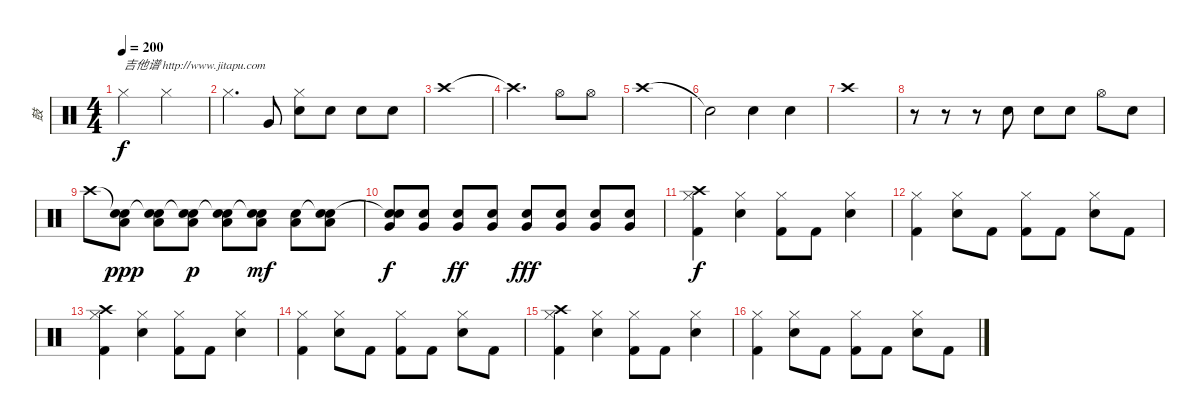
\track ("鼓" "鼓") {instrument percussion}
\staff {score}
\articulation defaults
\ts (4 4)
\tempo 200
\clef neutral
\ks c "Hi-Hat (closed)".2{txt "吉他谱 http://www.jitapu.com" dy f} "Hi-Hat (closed)".2
|
"Hi-Hat (closed)".4{d} "Very Low Tom (hit)".8 ("Hi-Hat (closed)" "Snare (hit) 2").8 "Snare (hit) 2".8 "Snare (hit) 2".8 "Snare (hit) 2".8 |
"Crash high (hit)".1 |
"Crash high (hit)"{t}.2{d} "Hi-Hat (open)".8 "Hi-Hat (open)".8 |
"Crash high (hit)".1 |
"Snare (hit)"{t}.2 "Snare (hit) 2"{nh}.4 "Snare (hit) 2"{nh}.4 |
"Crash high (hit)".1 |
r.8 r.8 r.8 "Snare (hit) 2".8 "Electric Snare (hit)".8 "Electric Snare (hit)".8 "Hi-Hat (open)".8 "Electric Snare (hit)".8 |
"Crash high (hit)".8 ("Snare (hit)"{t} "Snare (hit) 2" "Low Floor Tom (hit)").8{dy ppp} ("Snare (hit)"{t} "Snare (hit) 2" "Low Floor Tom (hit)").8 ("Snare (hit)"{t} "Snare (hit) 2" "Low Floor Tom (hit)").8{dy p} ("Snare (hit)"{t} "Snare (hit) 2" "Low Floor Tom (hit)").8 ("Snare (hit)"{t} "Snare (hit) 2" "Low Floor Tom (hit)").8{dy mf} ("Snare (hit) 2" "Low Floor Tom (hit)").8 ("Snare (hit)"{t} "Snare (hit) 2" "Low Floor Tom (hit)").8 |
("Snare (hit)"{t} "Snare (hit) 2" "Very Low Tom (hit)").8{dy f} ("Snare (hit) 2" "Very Low Tom (hit)").8 ("Snare (hit) 2" "Very Low Tom (hit)").8{dy ff} ("Snare (hit) 2" "Very Low Tom (hit)").8 ("Snare (hit) 2" "Very Low Tom (hit)").8{dy fff} ("Snare (hit) 2" "Very Low Tom (hit)").8 ("Snare (hit) 2" "Very Low Tom (hit)").8 ("Snare (hit) 2" "Very Low Tom (hit)").8 |
("Hi-Hat (closed)" "Crash high (hit)" "Kick (hit) 2").4{dy f} ("Hi-Hat (closed)" "Snare (hit) 2").4 ("Hi-Hat (closed)" "Kick (hit) 2").8 "Kick (hit) 2".8 ("Hi-Hat (closed)" "Snare (hit) 2").4 |
("Hi-Hat (closed)" "Kick (hit) 2").4 ("Hi-Hat (closed)" "Snare (hit) 2").8 "Kick (hit) 2".8 ("Hi-Hat (closed)" "Kick (hit) 2").8 "Kick (hit) 2".8 ("Hi-Hat (closed)" "Snare (hit) 2").8 "Kick (hit) 2".8 |
("Hi-Hat (closed)" "Crash high (hit)" "Kick (hit) 2").4 ("Hi-Hat (closed)" "Snare (hit) 2").4 ("Hi-Hat (closed)" "Kick (hit) 2").8 "Kick (hit) 2".8 ("Hi-Hat (closed)" "Snare (hit) 2").4 |
("Hi-Hat (closed)" "Kick (hit) 2").4 ("Hi-Hat (closed)" "Snare (hit) 2").8 "Kick (hit) 2".8 ("Hi-Hat (closed)" "Kick (hit) 2").8 "Kick (hit) 2".8 ("Hi-Hat (closed)" "Snare (hit) 2").8 "Kick (hit) 2".8 |
("Hi-Hat (closed)" "Crash high (hit)" "Kick (hit) 2").4 ("Hi-Hat (closed)" "Snare (hit) 2").4 ("Hi-Hat (closed)" "Kick (hit) 2").8 "Kick (hit) 2".8 ("Hi-Hat (closed)" "Snare (hit) 2").4 |
("Hi-Hat (closed)" "Kick (hit) 2").4 ("Hi-Hat (closed)" "Snare (hit) 2").8 "Kick (hit) 2".8 ("Hi-Hat (closed)" "Kick (hit) 2").8 "Kick (hit) 2".8 ("Hi-Hat (closed)" "Snare (hit) 2").8 "Kick (hit) 2".8
